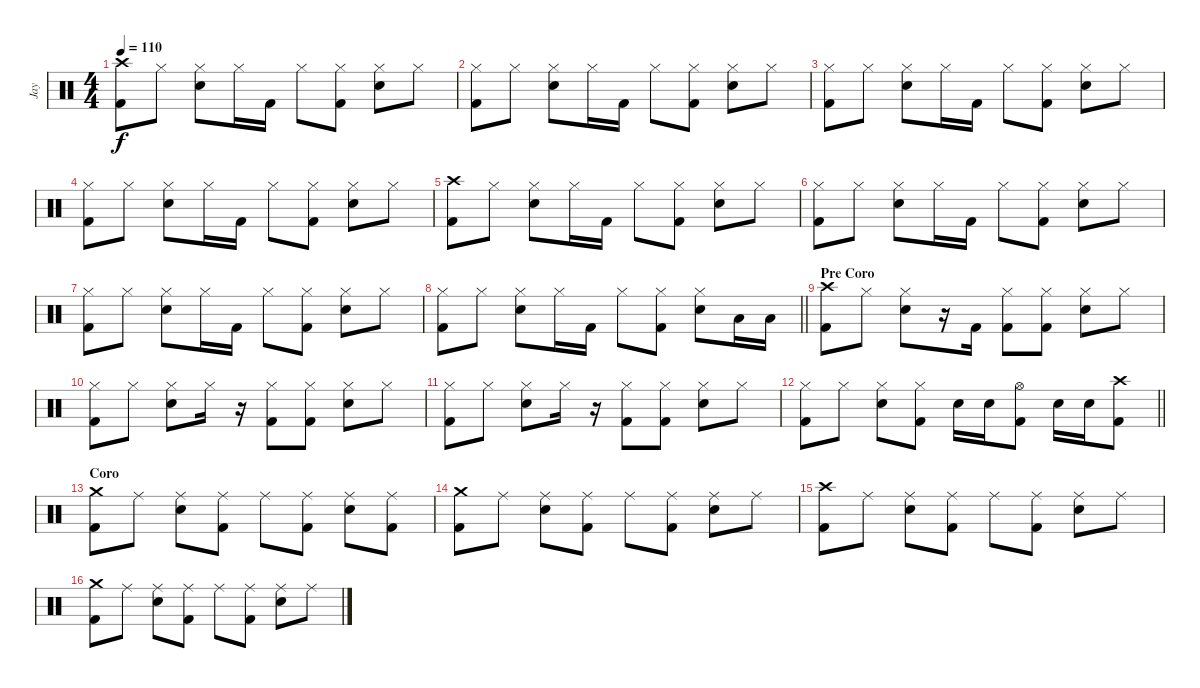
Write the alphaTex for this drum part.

\track ("Jay" "Jay") {instrument percussion}
\staff {score}
\articulation defaults
\ts (4 4)
\tempo 110
\clef neutral
\ks c
("Crash high (hit)" "Kick (hit) 2").8{dy f} "Hi-Hat (closed)".8 ("Hi-Hat (closed)" "Electric Snare (hit)").8 "Hi-Hat (closed)".16 "Kick (hit) 2".16 "Hi-Hat (closed)".8 ("Hi-Hat (closed)" "Kick (hit) 2").8 ("Hi-Hat (closed)" "Electric Snare (hit)").8 "Hi-Hat (closed)".8 |
("Hi-Hat (closed)" "Kick (hit) 2").8 "Hi-Hat (closed)".8 ("Hi-Hat (closed)" "Electric Snare (hit)").8 "Hi-Hat (closed)".16 "Kick (hit) 2".16 "Hi-Hat (closed)".8 ("Hi-Hat (closed)" "Kick (hit) 2").8 ("Hi-Hat (closed)" "Electric Snare (hit)").8 "Hi-Hat (closed)".8 |
("Hi-Hat (closed)" "Kick (hit) 2").8 "Hi-Hat (closed)".8 ("Hi-Hat (closed)" "Electric Snare (hit)").8 "Hi-Hat (closed)".16 "Kick (hit) 2".16 "Hi-Hat (closed)".8 ("Hi-Hat (closed)" "Kick (hit) 2").8 ("Hi-Hat (closed)" "Electric Snare (hit)").8 "Hi-Hat (closed)".8 |
("Hi-Hat (closed)" "Kick (hit) 2").8 "Hi-Hat (closed)".8 ("Hi-Hat (closed)" "Electric Snare (hit)").8 "Hi-Hat (closed)".16 "Kick (hit) 2".16 "Hi-Hat (closed)".8 ("Hi-Hat (closed)" "Kick (hit) 2").8 ("Hi-Hat (closed)" "Electric Snare (hit)").8 "Hi-Hat (closed)".8 |
("Crash high (hit)" "Kick (hit) 2").8 "Hi-Hat (closed)".8 ("Hi-Hat (closed)" "Electric Snare (hit)").8 "Hi-Hat (closed)".16 "Kick (hit) 2".16 "Hi-Hat (closed)".8 ("Hi-Hat (closed)" "Kick (hit) 2").8 ("Hi-Hat (closed)" "Electric Snare (hit)").8 "Hi-Hat (closed)".8 |
("Hi-Hat (closed)" "Kick (hit) 2").8 "Hi-Hat (closed)".8 ("Hi-Hat (closed)" "Electric Snare (hit)").8 "Hi-Hat (closed)".16 "Kick (hit) 2".16 "Hi-Hat (closed)".8 ("Hi-Hat (closed)" "Kick (hit) 2").8 ("Hi-Hat (closed)" "Electric Snare (hit)").8 "Hi-Hat (closed)".8 |
("Hi-Hat (closed)" "Kick (hit) 2").8 "Hi-Hat (closed)".8 ("Hi-Hat (closed)" "Electric Snare (hit)").8 "Hi-Hat (closed)".16 "Kick (hit) 2".16 "Hi-Hat (closed)".8 ("Hi-Hat (closed)" "Kick (hit) 2").8 ("Hi-Hat (closed)" "Electric Snare (hit)").8 "Hi-Hat (closed)".8 |
\barLineRight lightlight
("Hi-Hat (closed)" "Kick (hit) 2").8 "Hi-Hat (closed)".8 ("Hi-Hat (closed)" "Electric Snare (hit)").8 "Hi-Hat (closed)".16 "Kick (hit) 2".16 "Hi-Hat (closed)".8 ("Hi-Hat (closed)" "Kick (hit) 2").8 ("Hi-Hat (closed)" "Electric Snare (hit)").8 "Low Tom (hit)".16 "Low Tom (hit)".16 |
\section ("" "Pre Coro")
("Crash high (hit)" "Kick (hit) 2").8 "Hi-Hat (closed)".8 ("Hi-Hat (closed)" "Electric Snare (hit)").8 r.16 "Kick (hit) 2".16 ("Hi-Hat (closed)" "Kick (hit) 2").8 ("Hi-Hat (closed)" "Kick (hit) 2").8 ("Hi-Hat (closed)" "Electric Snare (hit)").8 "Hi-Hat (closed)".8 |
("Hi-Hat (closed)" "Kick (hit) 2").8 "Hi-Hat (closed)".8 ("Hi-Hat (closed)" "Electric Snare (hit)").8 "Hi-Hat (closed)".16 r.16 ("Hi-Hat (closed)" "Kick (hit) 2").8 ("Hi-Hat (closed)" "Kick (hit) 2").8 ("Hi-Hat (closed)" "Electric Snare (hit)").8 "Hi-Hat (closed)".8 |
("Hi-Hat (closed)" "Kick (hit) 2").8 "Hi-Hat (closed)".8 ("Hi-Hat (closed)" "Electric Snare (hit)").8 "Hi-Hat (closed)".16 r.16 ("Hi-Hat (closed)" "Kick (hit) 2").8 ("Hi-Hat (closed)" "Kick (hit) 2").8 ("Hi-Hat (closed)" "Electric Snare (hit)").8 "Hi-Hat (closed)".8 |
\barLineRight lightlight
("Hi-Hat (closed)" "Kick (hit) 2").8 "Hi-Hat (closed)".8 ("Hi-Hat (closed)" "Electric Snare (hit)").8 ("Hi-Hat (closed)" "Kick (hit) 2").8 "Electric Snare (hit)".16 "Electric Snare (hit)".16 ("Hi-Hat (open)" "Kick (hit) 2").8 "Electric Snare (hit)".16 "Electric Snare (hit)".16 ("Crash high (hit)" "Kick (hit) 2").8 |
\section ("" "Coro")
("Crash medium (hit)" "Kick (hit) 2").8 "Ride (middle)".8 ("Ride (middle)" "Electric Snare (hit)").8 ("Ride (middle)" "Kick (hit) 2").8 "Ride (middle)".8 ("Ride (middle)" "Kick (hit) 2").8 ("Ride (middle)" "Electric Snare (hit)").8 ("Ride (middle)" "Kick (hit) 2").8 |
("Crash medium (hit)" "Kick (hit) 2").8 "Ride (middle)".8 ("Ride (middle)" "Electric Snare (hit)").8 ("Ride (middle)" "Kick (hit) 2").8 "Ride (middle)".8 ("Ride (middle)" "Kick (hit) 2").8 ("Ride (middle)" "Electric Snare (hit)").8 "Ride (middle)".8 |
("Crash high (hit)" "Kick (hit) 2").8 "Ride (middle)".8 ("Ride (middle)" "Electric Snare (hit)").8 ("Ride (middle)" "Kick (hit) 2").8 "Ride (middle)".8 ("Ride (middle)" "Kick (hit) 2").8 ("Ride (middle)" "Electric Snare (hit)").8 "Ride (middle)".8 |
("Crash medium (hit)" "Kick (hit) 2").8 "Ride (middle)".8 ("Ride (middle)" "Electric Snare (hit)").8 ("Ride (middle)" "Kick (hit) 2").8 "Ride (middle)".8 ("Ride (middle)" "Kick (hit) 2").8 ("Ride (middle)" "Electric Snare (hit)").8 "Ride (middle)".8
